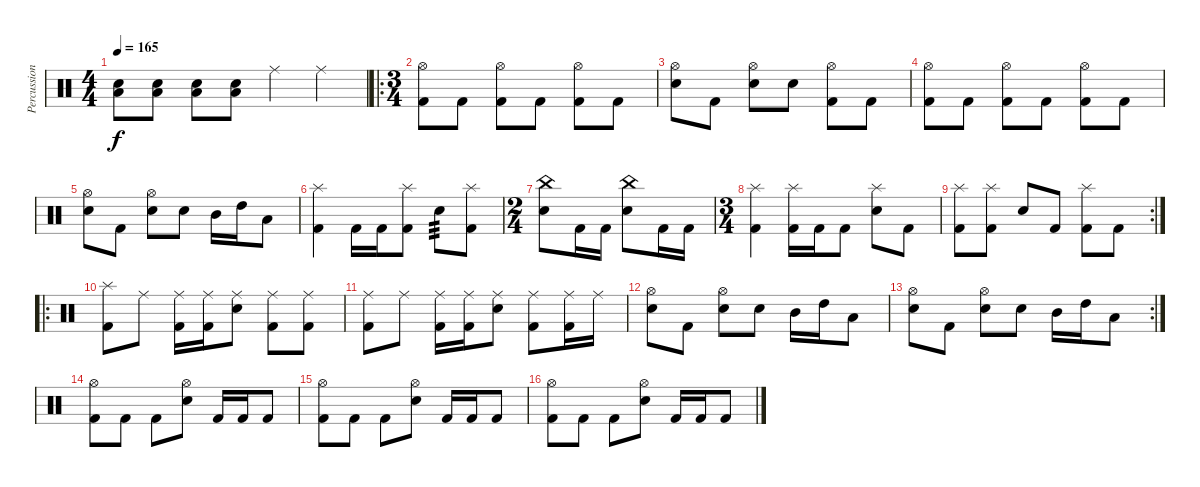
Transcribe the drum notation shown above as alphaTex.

\track ("Percussion" "Percussion") {instrument percussion}
\staff {score}
\articulation defaults
\ts (4 4)
\tempo 165
\clef neutral
\ks c
("Low Floor Tom (hit)" "Electric Snare (hit)").8{dy f} ("Low Floor Tom (hit)" "Electric Snare (hit)").8 ("Low Floor Tom (hit)" "Electric Snare (hit)").8 ("Low Floor Tom (hit)" "Electric Snare (hit)").8 "Ride (middle)".4 "Ride (middle)".4 |
\ro
\ts (3 4)
("Hi-Hat (open)" "Kick (hit) 2").8 "Kick (hit) 2".8 ("Hi-Hat (open)" "Kick (hit) 2").8 "Kick (hit) 2".8 ("Hi-Hat (open)" "Kick (hit) 2").8 "Kick (hit) 2".8 |
("Hi-Hat (open)" "Electric Snare (hit)").8 "Kick (hit) 2".8 ("Hi-Hat (open)" "Electric Snare (hit)").8 "Electric Snare (hit)".8 ("Hi-Hat (open)" "Kick (hit) 2").8 "Kick (hit) 2".8 |
("Hi-Hat (open)" "Kick (hit) 2").8 "Kick (hit) 2".8 ("Hi-Hat (open)" "Kick (hit) 2").8 "Kick (hit) 2".8 ("Hi-Hat (open)" "Kick (hit) 2").8 "Kick (hit) 2".8 |
("Hi-Hat (open)" "Electric Snare (hit)").8 "Kick (hit) 2".8 ("Hi-Hat (open)" "Electric Snare (hit)").8 "Electric Snare (hit)".8 "Mid Tom (hit)".16 "High Tom (hit)".16 "Low Tom (hit)".8 |
("Splash (hit)" "Kick (hit) 2").4 "Kick (hit) 2".16 "Kick (hit) 2".16 ("Splash (hit)" "Kick (hit) 2").8 "Electric Snare (hit)".8{tp 3} ("Splash (hit)" "Kick (hit) 2").8 |
\ts (2 4)
("China (hit)" "Electric Snare (hit)").8 "Kick (hit) 2".16 "Kick (hit) 2".16 ("China (hit)" "Electric Snare (hit)").8 "Kick (hit) 2".16 "Kick (hit) 2".16 |
\ts (3 4)
("Splash (hit)" "Kick (hit) 2").4 ("Splash (hit)" "Kick (hit) 2").16 "Kick (hit) 2".16 "Kick (hit) 2".8 ("Splash (hit)" "Electric Snare (hit)").8 "Kick (hit) 2".8 |
\rc 2
("Splash (hit)" "Kick (hit) 2").8 ("Splash (hit)" "Kick (hit) 2").8 "Electric Snare (hit)".8 "Kick (hit) 2".8 ("Splash (hit)" "Kick (hit) 2").8 "Kick (hit) 2".8 |
\ro
("Splash (hit)" "Kick (hit) 2").8 "Ride (middle)".8 ("Ride (middle)" "Kick (hit) 2").16 ("Ride (middle)" "Kick (hit) 2").16 ("Ride (middle)" "Electric Snare (hit)").8 ("Ride (middle)" "Kick (hit) 2").8 ("Ride (middle)" "Kick (hit) 2").8 |
("Ride (middle)" "Kick (hit) 2").8 "Ride (middle)".8 ("Ride (middle)" "Kick (hit) 2").16 ("Ride (middle)" "Kick (hit) 2").16 ("Ride (middle)" "Electric Snare (hit)").8 ("Ride (middle)" "Kick (hit) 2").8 ("Ride (middle)" "Kick (hit) 2").16 "Ride (middle)".16 |
("Hi-Hat (open)" "Electric Snare (hit)").8 "Kick (hit) 2".8 ("Hi-Hat (open)" "Electric Snare (hit)").8 "Electric Snare (hit)".8 "Mid Tom (hit)".16 "High Tom (hit)".16 "Low Tom (hit)".8 |
\rc 2
("Hi-Hat (open)" "Electric Snare (hit)").8 "Kick (hit) 2".8 ("Hi-Hat (open)" "Electric Snare (hit)").8 "Electric Snare (hit)".8 "Mid Tom (hit)".16 "High Tom (hit)".16 "Low Tom (hit)".8 |
("Hi-Hat (open)" "Kick (hit) 2").8 "Kick (hit) 2".8 "Kick (hit) 2".8 ("Hi-Hat (open)" "Electric Snare (hit)").8 "Kick (hit) 2".16 "Kick (hit) 2".16 "Kick (hit) 2".8 |
("Hi-Hat (open)" "Kick (hit) 2").8 "Kick (hit) 2".8 "Kick (hit) 2".8 ("Hi-Hat (open)" "Electric Snare (hit)").8 "Kick (hit) 2".16 "Kick (hit) 2".16 "Kick (hit) 2".8 |
("Hi-Hat (open)" "Kick (hit) 2").8 "Kick (hit) 2".8 "Kick (hit) 2".8 ("Hi-Hat (open)" "Electric Snare (hit)").8 "Kick (hit) 2".16 "Kick (hit) 2".16 "Kick (hit) 2".8
